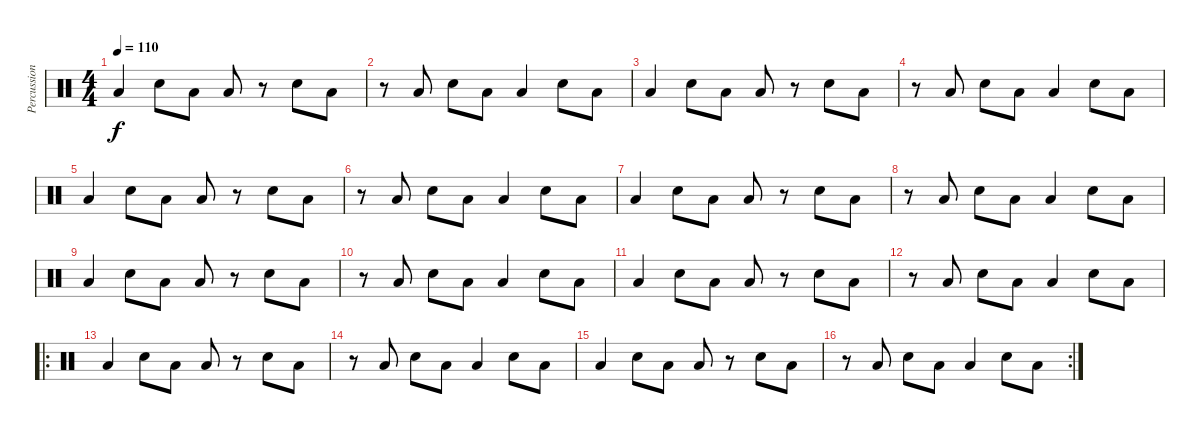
\track ("Percussion" "Percussion") {instrument percussion}
\staff {score}
\articulation defaults
\ts (4 4)
\tempo 110
\clef neutral
\ks c "Low Tom (hit)".4{dy f} "Electric Snare (hit)".8 "Low Tom (hit)".8 "Low Tom (hit)".8
r.8 "Electric Snare (hit)".8 "Low Tom (hit)".8 |
r.8 "Low Tom (hit)".8 "Electric Snare (hit)".8 "Low Tom (hit)".8 "Low Tom (hit)".4 "Electric Snare (hit)".8 "Low Tom (hit)".8 |
"Low Tom (hit)".4 "Electric Snare (hit)".8 "Low Tom (hit)".8 "Low Tom (hit)".8 r.8 "Electric Snare (hit)".8 "Low Tom (hit)".8 |
r.8 "Low Tom (hit)".8 "Electric Snare (hit)".8 "Low Tom (hit)".8 "Low Tom (hit)".4 "Electric Snare (hit)".8 "Low Tom (hit)".8 |
"Low Tom (hit)".4 "Electric Snare (hit)".8 "Low Tom (hit)".8 "Low Tom (hit)".8 r.8 "Electric Snare (hit)".8 "Low Tom (hit)".8 |
r.8 "Low Tom (hit)".8 "Electric Snare (hit)".8 "Low Tom (hit)".8 "Low Tom (hit)".4 "Electric Snare (hit)".8 "Low Tom (hit)".8 |
"Low Tom (hit)".4 "Electric Snare (hit)".8 "Low Tom (hit)".8 "Low Tom (hit)".8 r.8 "Electric Snare (hit)".8 "Low Tom (hit)".8 |
r.8 "Low Tom (hit)".8 "Electric Snare (hit)".8 "Low Tom (hit)".8 "Low Tom (hit)".4 "Electric Snare (hit)".8 "Low Tom (hit)".8 |
"Low Tom (hit)".4 "Electric Snare (hit)".8 "Low Tom (hit)".8 "Low Tom (hit)".8 r.8 "Electric Snare (hit)".8 "Low Tom (hit)".8 |
r.8 "Low Tom (hit)".8 "Electric Snare (hit)".8 "Low Tom (hit)".8 "Low Tom (hit)".4 "Electric Snare (hit)".8 "Low Tom (hit)".8 |
"Low Tom (hit)".4 "Electric Snare (hit)".8 "Low Tom (hit)".8 "Low Tom (hit)".8 r.8 "Electric Snare (hit)".8 "Low Tom (hit)".8 |
r.8 "Low Tom (hit)".8 "Electric Snare (hit)".8 "Low Tom (hit)".8 "Low Tom (hit)".4 "Electric Snare (hit)".8 "Low Tom (hit)".8 |
\ro "Low Tom (hit)".4 "Electric Snare (hit)".8 "Low Tom (hit)".8 "Low Tom (hit)".8
r.8 "Electric Snare (hit)".8 "Low Tom (hit)".8 |
r.8 "Low Tom (hit)".8 "Electric Snare (hit)".8 "Low Tom (hit)".8 "Low Tom (hit)".4 "Electric Snare (hit)".8 "Low Tom (hit)".8 |
"Low Tom (hit)".4 "Electric Snare (hit)".8 "Low Tom (hit)".8 "Low Tom (hit)".8 r.8 "Electric Snare (hit)".8 "Low Tom (hit)".8 |
\rc 2
r.8 "Low Tom (hit)".8 "Electric Snare (hit)".8 "Low Tom (hit)".8 "Low Tom (hit)".4 "Electric Snare (hit)".8 "Low Tom (hit)".8
